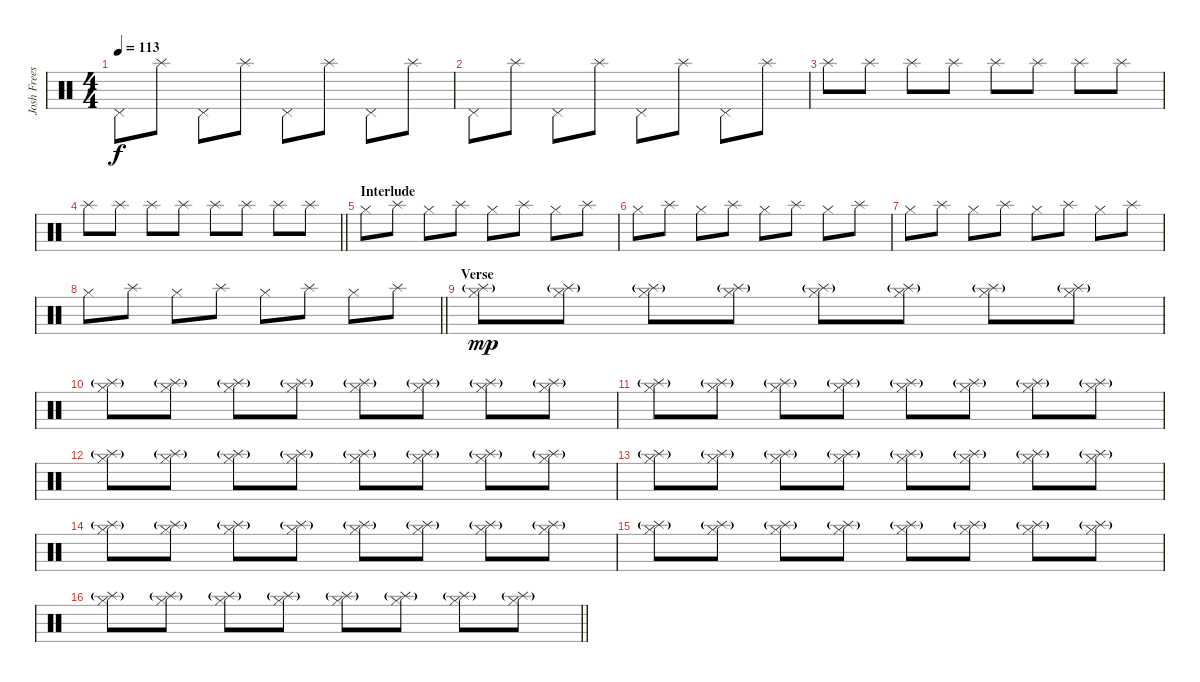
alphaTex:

\track ("Josh Freese (Studio Drummer)" "Josh Frees") {instrument percussion}
\staff {score}
\articulation defaults
\ts (4 4)
\tempo 113
\clef neutral
\ks c "Pedal Hi-Hat (hit)".8{dy f} "Splash (hit)".8 "Pedal Hi-Hat (hit)".8 "Splash (hit)".8 "Pedal Hi-Hat (hit)".8 "Splash (hit)".8 "Pedal Hi-Hat (hit)".8 "Splash (hit)".8
|
"Pedal Hi-Hat (hit)".8 "Splash (hit)".8 "Pedal Hi-Hat (hit)".8 "Splash (hit)".8 "Pedal Hi-Hat (hit)".8 "Splash (hit)".8 "Pedal Hi-Hat (hit)".8 "Splash (hit)".8 |
"Splash (hit)".8 "Splash (hit)".8 "Splash (hit)".8 "Splash (hit)".8 "Splash (hit)".8 "Splash (hit)".8 "Splash (hit)".8 "Splash (hit)".8 |
\barLineRight lightlight "Splash (hit)".8 "Splash (hit)".8 "Splash (hit)".8 "Splash (hit)".8 "Splash (hit)".8 "Splash (hit)".8 "Splash (hit)".8 "Splash (hit)".8
|
\section ("" "Interlude")
"Hi-Hat (closed)".8 "Splash (hit)".8 "Hi-Hat (closed)".8 "Splash (hit)".8 "Hi-Hat (closed)".8 "Splash (hit)".8 "Hi-Hat (closed)".8 "Splash (hit)".8 |
"Hi-Hat (closed)".8 "Splash (hit)".8 "Hi-Hat (closed)".8 "Splash (hit)".8 "Hi-Hat (closed)".8 "Splash (hit)".8 "Hi-Hat (closed)".8 "Splash (hit)".8 |
"Hi-Hat (closed)".8 "Splash (hit)".8 "Hi-Hat (closed)".8 "Splash (hit)".8 "Hi-Hat (closed)".8 "Splash (hit)".8 "Hi-Hat (closed)".8 "Splash (hit)".8 |
\barLineRight lightlight "Hi-Hat (closed)".8 "Splash (hit)".8 "Hi-Hat (closed)".8 "Splash (hit)".8 "Hi-Hat (closed)".8 "Splash (hit)".8 "Hi-Hat (closed)".8 "Splash (hit)".8
|
\section ("" "Verse")
("Hi-Hat (closed)" "Splash (hit)"{g}).8{dy mp} ("Hi-Hat (closed)" "Splash (hit)"{g}).8 ("Hi-Hat (closed)" "Splash (hit)"{g}).8 ("Hi-Hat (closed)" "Splash (hit)"{g}).8 ("Hi-Hat (closed)" "Splash (hit)"{g}).8 ("Hi-Hat (closed)" "Splash (hit)"{g}).8 ("Hi-Hat (closed)" "Splash (hit)"{g}).8 ("Hi-Hat (closed)" "Splash (hit)"{g}).8 |
("Hi-Hat (closed)" "Splash (hit)"{g}).8 ("Hi-Hat (closed)" "Splash (hit)"{g}).8 ("Hi-Hat (closed)" "Splash (hit)"{g}).8 ("Hi-Hat (closed)" "Splash (hit)"{g}).8 ("Hi-Hat (closed)" "Splash (hit)"{g}).8 ("Hi-Hat (closed)" "Splash (hit)"{g}).8 ("Hi-Hat (closed)" "Splash (hit)"{g}).8 ("Hi-Hat (closed)" "Splash (hit)"{g}).8 |
("Hi-Hat (closed)" "Splash (hit)"{g}).8 ("Hi-Hat (closed)" "Splash (hit)"{g}).8 ("Hi-Hat (closed)" "Splash (hit)"{g}).8 ("Hi-Hat (closed)" "Splash (hit)"{g}).8 ("Hi-Hat (closed)" "Splash (hit)"{g}).8 ("Hi-Hat (closed)" "Splash (hit)"{g}).8 ("Hi-Hat (closed)" "Splash (hit)"{g}).8 ("Hi-Hat (closed)" "Splash (hit)"{g}).8 |
("Hi-Hat (closed)" "Splash (hit)"{g}).8 ("Hi-Hat (closed)" "Splash (hit)"{g}).8 ("Hi-Hat (closed)" "Splash (hit)"{g}).8 ("Hi-Hat (closed)" "Splash (hit)"{g}).8 ("Hi-Hat (closed)" "Splash (hit)"{g}).8 ("Hi-Hat (closed)" "Splash (hit)"{g}).8 ("Hi-Hat (closed)" "Splash (hit)"{g}).8 ("Hi-Hat (closed)" "Splash (hit)"{g}).8 |
("Hi-Hat (closed)" "Splash (hit)"{g}).8 ("Hi-Hat (closed)" "Splash (hit)"{g}).8 ("Hi-Hat (closed)" "Splash (hit)"{g}).8 ("Hi-Hat (closed)" "Splash (hit)"{g}).8 ("Hi-Hat (closed)" "Splash (hit)"{g}).8 ("Hi-Hat (closed)" "Splash (hit)"{g}).8 ("Hi-Hat (closed)" "Splash (hit)"{g}).8 ("Hi-Hat (closed)" "Splash (hit)"{g}).8 |
("Hi-Hat (closed)" "Splash (hit)"{g}).8 ("Hi-Hat (closed)" "Splash (hit)"{g}).8 ("Hi-Hat (closed)" "Splash (hit)"{g}).8 ("Hi-Hat (closed)" "Splash (hit)"{g}).8 ("Hi-Hat (closed)" "Splash (hit)"{g}).8 ("Hi-Hat (closed)" "Splash (hit)"{g}).8 ("Hi-Hat (closed)" "Splash (hit)"{g}).8 ("Hi-Hat (closed)" "Splash (hit)"{g}).8 |
("Hi-Hat (closed)" "Splash (hit)"{g}).8 ("Hi-Hat (closed)" "Splash (hit)"{g}).8 ("Hi-Hat (closed)" "Splash (hit)"{g}).8 ("Hi-Hat (closed)" "Splash (hit)"{g}).8 ("Hi-Hat (closed)" "Splash (hit)"{g}).8 ("Hi-Hat (closed)" "Splash (hit)"{g}).8 ("Hi-Hat (closed)" "Splash (hit)"{g}).8 ("Hi-Hat (closed)" "Splash (hit)"{g}).8 |
\barLineRight lightlight
("Hi-Hat (closed)" "Splash (hit)"{g}).8 ("Hi-Hat (closed)" "Splash (hit)"{g}).8 ("Hi-Hat (closed)" "Splash (hit)"{g}).8 ("Hi-Hat (closed)" "Splash (hit)"{g}).8 ("Hi-Hat (closed)" "Splash (hit)"{g}).8 ("Hi-Hat (closed)" "Splash (hit)"{g}).8 ("Hi-Hat (closed)" "Splash (hit)"{g}).8 ("Hi-Hat (closed)" "Splash (hit)"{g}).8
